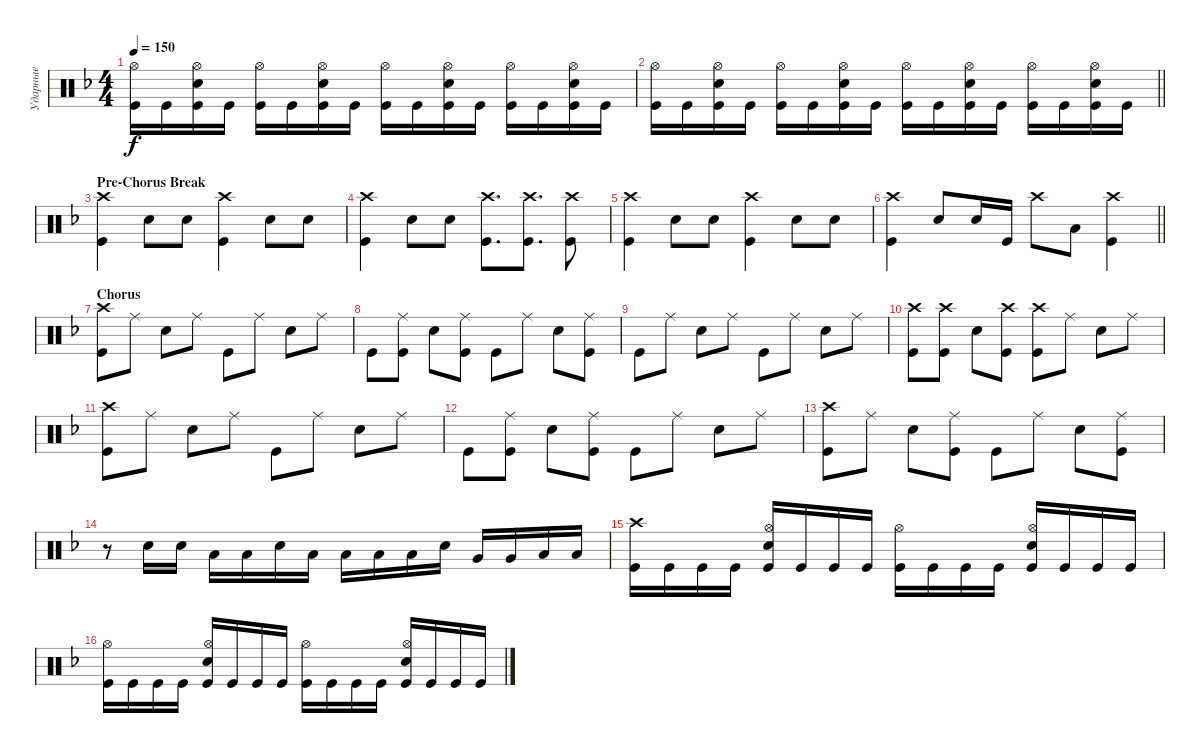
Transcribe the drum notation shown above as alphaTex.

\track ("Ударные" "Ударные") {instrument percussion}
\staff {score}
\articulation defaults
\ts (4 4)
\tempo 150
\clef neutral
\ks dminor
("Kick (hit)" "Hi-Hat (open)").16{dy f} "Kick (hit)".16 ("Kick (hit)" "Snare (hit) 2" "Hi-Hat (open)").16 "Kick (hit)".16 ("Kick (hit)" "Hi-Hat (open)").16 "Kick (hit)".16 ("Kick (hit)" "Snare (hit) 2" "Hi-Hat (open)").16 "Kick (hit)".16 ("Kick (hit)" "Hi-Hat (open)").16 "Kick (hit)".16 ("Snare (hit) 2" "Kick (hit)" "Hi-Hat (open)").16 "Kick (hit)".16 ("Kick (hit)" "Hi-Hat (open)").16 "Kick (hit)".16 ("Kick (hit)" "Snare (hit) 2" "Hi-Hat (open)").16 "Kick (hit)".16 |
\barLineRight lightlight
("Kick (hit)" "Hi-Hat (open)").16 "Kick (hit)".16 ("Kick (hit)" "Snare (hit) 2" "Hi-Hat (open)").16 "Kick (hit)".16 ("Kick (hit)" "Hi-Hat (open)").16 "Kick (hit)".16 ("Kick (hit)" "Snare (hit) 2" "Hi-Hat (open)").16 "Kick (hit)".16 ("Kick (hit)" "Hi-Hat (open)").16 "Kick (hit)".16 ("Snare (hit) 2" "Kick (hit)" "Hi-Hat (open)").16 "Kick (hit)".16 ("Kick (hit)" "Hi-Hat (open)").16 "Kick (hit)".16 ("Kick (hit)" "Snare (hit) 2" "Hi-Hat (open)").16 "Kick (hit)".16 |
\section ("" "Pre-Chorus Break")
("Kick (hit)" "Crash high (hit)").4 "Snare (hit) 2".8 "Snare (hit) 2".8 ("Kick (hit)" "Crash high (hit)").4 "Snare (hit) 2".8 "Snare (hit) 2".8 |
("Kick (hit)" "Crash high (hit)").4 "Snare (hit) 2".8 "Snare (hit) 2".8 ("Kick (hit)" "Crash high (hit)").8{d} ("Kick (hit)" "Crash high (hit)").8{d} ("Kick (hit)" "Crash high (hit)").8 |
("Kick (hit)" "Crash high (hit)").4 "Snare (hit) 2".8 "Snare (hit) 2".8 ("Kick (hit)" "Crash high (hit)").4 "Snare (hit) 2".8 "Snare (hit) 2".8 |
\barLineRight lightlight
("Kick (hit)" "Crash high (hit)").4 "Snare (hit) 2".8 "Snare (hit) 2".16 "Kick (hit)".16 "Crash high (hit)".8 "Low Floor Tom (hit)".8 ("Kick (hit)" "Crash high (hit)").4 |
\section ("" "Chorus")
("Kick (hit)" "Crash high (hit)").8 "Ride (middle)".8 "Snare (hit) 2".8 "Ride (middle)".8 "Kick (hit)".8 "Ride (middle)".8 "Snare (hit) 2".8 "Ride (middle)".8 |
"Kick (hit)".8 ("Kick (hit)" "Ride (middle)").8 "Snare (hit) 2".8 ("Kick (hit)" "Ride (middle)").8 "Kick (hit)".8 "Ride (middle)".8 "Snare (hit) 2".8 ("Kick (hit)" "Ride (middle)").8 |
"Kick (hit)".8 "Ride (middle)".8 "Snare (hit) 2".8 "Ride (middle)".8 "Kick (hit)".8 "Ride (middle)".8 "Snare (hit) 2".8 "Ride (middle)".8 |
("Kick (hit)" "Crash high (hit)").8 ("Kick (hit)" "Crash high (hit)").8 "Snare (hit) 2".8 ("Kick (hit)" "Crash high (hit)").8 ("Kick (hit)" "Crash high (hit)").8 "Ride (middle)".8 "Snare (hit) 2".8 "Ride (middle)".8 |
("Kick (hit)" "Crash high (hit)").8 "Ride (middle)".8 "Snare (hit) 2".8 "Ride (middle)".8 "Kick (hit)".8 "Ride (middle)".8 "Snare (hit) 2".8 "Ride (middle)".8 |
"Kick (hit)".8 ("Kick (hit)" "Ride (middle)").8 "Snare (hit) 2".8 ("Kick (hit)" "Ride (middle)").8 "Kick (hit)".8 "Ride (middle)".8 "Snare (hit) 2".8 "Ride (middle)".8 |
("Kick (hit)" "Crash high (hit)").8 "Ride (middle)".8 "Snare (hit) 2".8 ("Kick (hit)" "Ride (middle)").8 "Kick (hit)".8 "Ride (middle)".8 "Snare (hit) 2".8 ("Kick (hit)" "Ride (middle)").8 |
r.8 "Snare (hit) 2".16 "Snare (hit) 2".16 "Low Tom (hit)".16 "Low Tom (hit)".16 "Snare (hit) 2".16 "Low Tom (hit)".16 "Low Tom (hit)".16 "Low Tom (hit)".16 "Low Tom (hit)".16 "Snare (hit) 2".16 "Very Low Tom (hit)".16 "Very Low Tom (hit)".16 "Low Floor Tom (hit)".16 "Low Floor Tom (hit)".16 |
("Kick (hit)" "Crash high (hit)").16 "Kick (hit)".16 "Kick (hit)".16 "Kick (hit)".16 ("Kick (hit)" "Snare (hit) 2" "Hi-Hat (open)").16 "Kick (hit)".16 "Kick (hit)".16 "Kick (hit)".16 ("Kick (hit)" "Hi-Hat (open)").16 "Kick (hit)".16 "Kick (hit)".16 "Kick (hit)".16 ("Kick (hit)" "Snare (hit) 2" "Hi-Hat (open)").16 "Kick (hit)".16 "Kick (hit)".16 "Kick (hit)".16 |
("Kick (hit)" "Hi-Hat (open)").16 "Kick (hit)".16 "Kick (hit)".16 "Kick (hit)".16 ("Kick (hit)" "Snare (hit) 2" "Hi-Hat (open)").16 "Kick (hit)".16 "Kick (hit)".16 "Kick (hit)".16 ("Kick (hit)" "Hi-Hat (open)").16 "Kick (hit)".16 "Kick (hit)".16 "Kick (hit)".16 ("Kick (hit)" "Snare (hit) 2" "Hi-Hat (open)").16 "Kick (hit)".16 "Kick (hit)".16 "Kick (hit)".16
